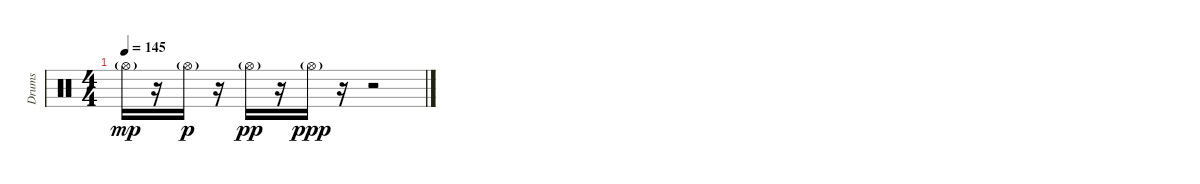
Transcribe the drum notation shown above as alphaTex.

\track ("Drums" "Drums") {instrument percussion}
\staff {score}
\articulation defaults
\ts (4 4)
\tempo 145
\clef neutral
\ks c "Hi-Hat (open)"{g}.16{dy mp}
r.16 "Hi-Hat (open)"{g}.16{dy p} r.16 "Hi-Hat (open)"{g}.16{dy pp} r.16 "Hi-Hat (open)"{g}.16{dy ppp} r.16 r.2
